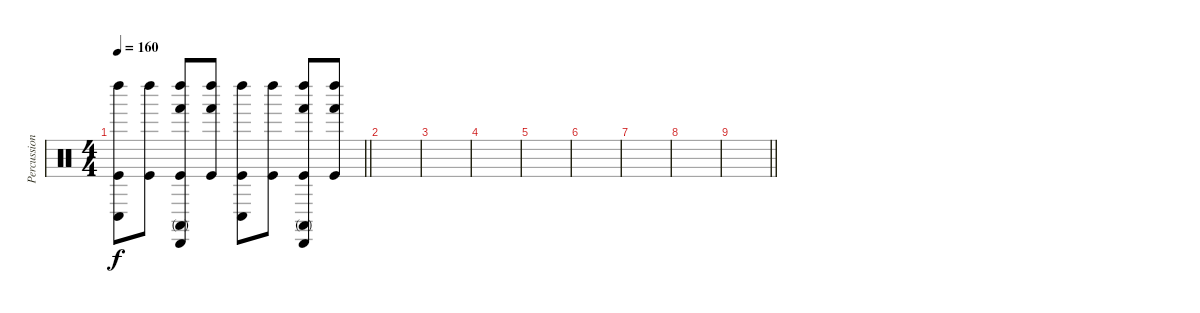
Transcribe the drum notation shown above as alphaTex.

\track ("Percussion" "Percussion") {instrument percussion}
\staff {score}
\articulation defaults
\ts (4 4)
\tempo 160
\clef neutral
\barLineRight lightlight
\ks c
("Kick (hit)" "Conga low (hit)" "Left Maraca (hit)").8{dy f volume 3} ("Kick (hit)" "Left Maraca (hit)").8 ("Kick (hit)" "Hand (hit)" "Conga high (mute)" "Left Maraca (hit)" "Cabasa (hit)").8 ("Kick (hit)" "Left Maraca (hit)" "Hand (hit)").8 ("Kick (hit)" "Conga low (hit)" "Left Maraca (hit)").8 ("Kick (hit)" "Left Maraca (hit)").8 ("Kick (hit)" "Hand (hit)" "Conga high (mute)" "Left Maraca (hit)" "Cabasa (hit)").8 ("Kick (hit)" "Left Maraca (hit)" "Hand (hit)").8 |
|
|
|
|
|
|
|
\barLineRight lightlight
